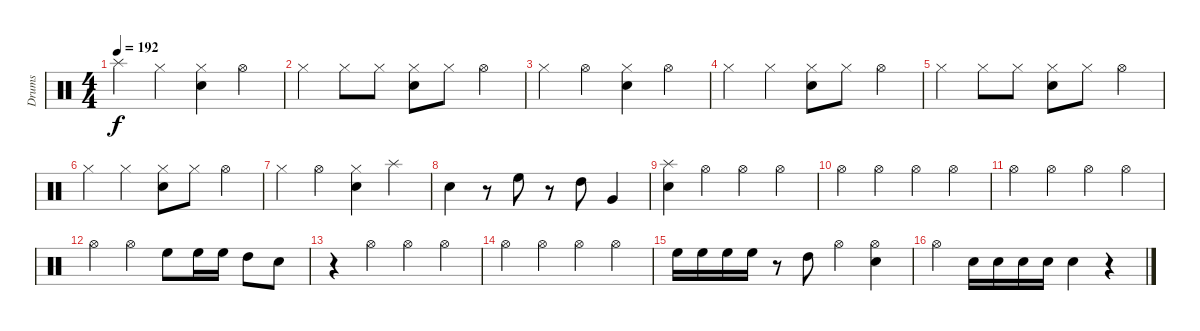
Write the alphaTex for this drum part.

\track ("Drums" "Drums") {instrument percussion}
\staff {score}
\articulation defaults
\ts (4 4)
\tempo 192
\clef neutral
\ks c "Splash (hit)".4{dy f} "Hi-Hat (closed)".4
("Hi-Hat (closed)" "Snare (hit) 2").4 "Hi-Hat (open)".4 |
"Hi-Hat (closed)".4 "Hi-Hat (closed)".8 "Hi-Hat (closed)".8 ("Hi-Hat (closed)" "Snare (hit) 2").8 "Hi-Hat (closed)".8 "Hi-Hat (open)".4 |
"Hi-Hat (closed)".4 "Hi-Hat (open)".4 ("Hi-Hat (closed)" "Snare (hit) 2").4 "Hi-Hat (open)".4 |
"Hi-Hat (closed)".4 "Hi-Hat (closed)".4 ("Hi-Hat (closed)" "Snare (hit) 2").8 "Hi-Hat (closed)".8 "Hi-Hat (open)".4 |
"Hi-Hat (closed)".4 "Hi-Hat (closed)".8 "Hi-Hat (closed)".8 ("Hi-Hat (closed)" "Snare (hit) 2").8 "Hi-Hat (closed)".8 "Hi-Hat (open)".4 |
"Hi-Hat (closed)".4 "Hi-Hat (closed)".4 ("Hi-Hat (closed)" "Snare (hit) 2").8 "Hi-Hat (closed)".8 "Hi-Hat (open)".4 |
"Hi-Hat (closed)".4 "Hi-Hat (open)".4 ("Hi-Hat (closed)" "Snare (hit) 2").4 "Splash (hit)".4 |
"Snare (hit) 2".4 r.8 "High Floor Tom (hit)".8 r.8 "High Tom (hit)".8 "Very Low Tom (hit)".4 |
("Splash (hit)" "Snare (hit) 2").4 "Hi-Hat (open)".4 "Hi-Hat (open)".4 "Hi-Hat (open)".4 |
"Hi-Hat (open)".4 "Hi-Hat (open)".4 "Hi-Hat (open)".4 "Hi-Hat (open)".4 |
"Hi-Hat (open)".4 "Hi-Hat (open)".4 "Hi-Hat (open)".4 "Hi-Hat (open)".4 |
"Hi-Hat (open)".4 "Hi-Hat (open)".4 "High Floor Tom (hit)".8 "High Floor Tom (hit)".16 "High Floor Tom (hit)".16 "High Tom (hit)".8 "Snare (hit) 2".8 |
r.4 "Hi-Hat (open)".4 "Hi-Hat (open)".4 "Hi-Hat (open)".4 |
"Hi-Hat (open)".4 "Hi-Hat (open)".4 "Hi-Hat (open)".4 "Hi-Hat (open)".4 |
"High Floor Tom (hit)".16 "High Floor Tom (hit)".16 "High Floor Tom (hit)".16 "High Floor Tom (hit)".16 r.8 "High Tom (hit)".8 "Hi-Hat (open)".4 ("Hi-Hat (open)" "Snare (hit) 2").4 |
"Hi-Hat (open)".4 "Snare (hit) 2".16 "Snare (hit) 2".16 "Snare (hit) 2".16 "Snare (hit) 2".16 "Snare (hit) 2".4 r.4
